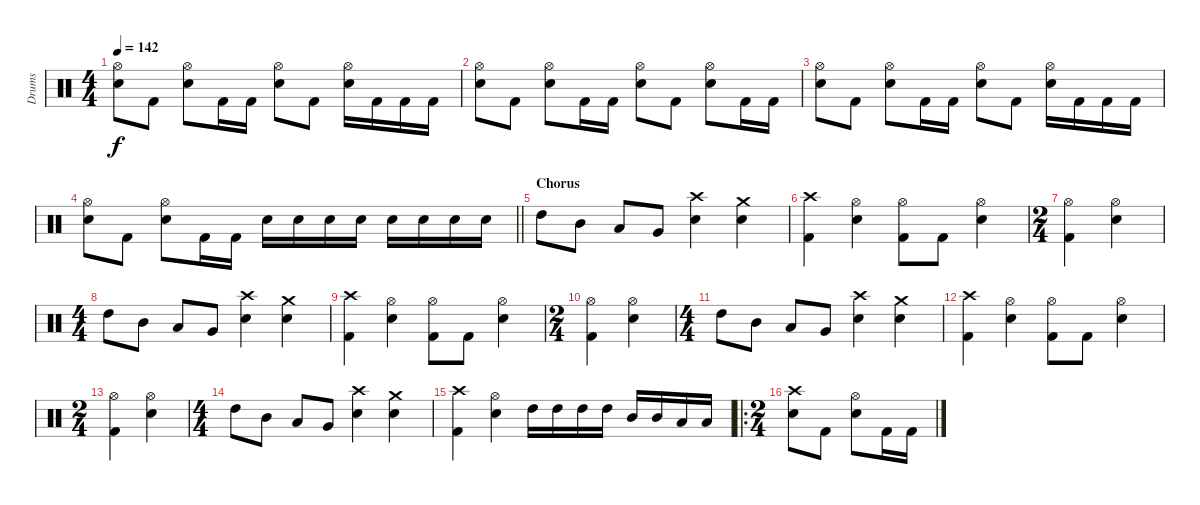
\track ("Drums" "Drums") {instrument percussion}
\staff {score}
\articulation defaults
\ts (4 4)
\tempo 142
\clef neutral
\ks c
("Snare (hit) 2" "Hi-Hat (open)").8{dy f} "Kick (hit) 2".8 ("Snare (hit) 2" "Hi-Hat (open)").8 "Kick (hit) 2".16 "Kick (hit) 2".16 ("Snare (hit) 2" "Hi-Hat (open)").8 "Kick (hit) 2".8 ("Snare (hit) 2" "Hi-Hat (open)").16 "Kick (hit) 2".16 "Kick (hit) 2".16 "Kick (hit) 2".16 |
("Snare (hit) 2" "Hi-Hat (open)").8 "Kick (hit) 2".8 ("Snare (hit) 2" "Hi-Hat (open)").8 "Kick (hit) 2".16 "Kick (hit) 2".16 ("Snare (hit) 2" "Hi-Hat (open)").8 "Kick (hit) 2".8 ("Snare (hit) 2" "Hi-Hat (open)").8 "Kick (hit) 2".16 "Kick (hit) 2".16 |
("Snare (hit) 2" "Hi-Hat (open)").8 "Kick (hit) 2".8 ("Snare (hit) 2" "Hi-Hat (open)").8 "Kick (hit) 2".16 "Kick (hit) 2".16 ("Snare (hit) 2" "Hi-Hat (open)").8 "Kick (hit) 2".8 ("Snare (hit) 2" "Hi-Hat (open)").16 "Kick (hit) 2".16 "Kick (hit) 2".16 "Kick (hit) 2".16 |
\barLineRight lightlight
("Snare (hit) 2" "Hi-Hat (open)").8 "Kick (hit) 2".8 ("Snare (hit) 2" "Hi-Hat (open)").8 "Kick (hit) 2".16 "Kick (hit) 2".16 "Snare (hit) 2".16 "Snare (hit) 2".16 "Snare (hit) 2".16 "Snare (hit) 2".16 "Snare (hit) 2".16 "Snare (hit) 2".16 "Snare (hit) 2".16 "Snare (hit) 2".16 |
\section ("" "Chorus")
"High Tom (hit)".8 "Mid Tom (hit)".8 "Low Tom (hit)".8 "Very Low Tom (hit)".8 ("Snare (hit) 2" "Crash high (hit)").4 ("Snare (hit) 2" "Crash medium (hit)").4 |
("Kick (hit) 2" "Crash high (hit)").4 ("Snare (hit) 2" "Hi-Hat (open)").4 ("Kick (hit) 2" "Hi-Hat (open)").8 "Kick (hit) 2".8 ("Snare (hit) 2" "Hi-Hat (open)").4 |
\ts (2 4)
("Kick (hit) 2" "Hi-Hat (open)").4 ("Snare (hit) 2" "Hi-Hat (open)").4 |
\ts (4 4)
"High Tom (hit)".8 "Mid Tom (hit)".8 "Low Tom (hit)".8 "Very Low Tom (hit)".8 ("Snare (hit) 2" "Crash high (hit)").4 ("Snare (hit) 2" "Crash medium (hit)").4 |
("Kick (hit) 2" "Crash high (hit)").4 ("Snare (hit) 2" "Hi-Hat (open)").4 ("Kick (hit) 2" "Hi-Hat (open)").8 "Kick (hit) 2".8 ("Snare (hit) 2" "Hi-Hat (open)").4 |
\ts (2 4)
("Kick (hit) 2" "Hi-Hat (open)").4 ("Snare (hit) 2" "Hi-Hat (open)").4 |
\ts (4 4)
"High Tom (hit)".8 "Mid Tom (hit)".8 "Low Tom (hit)".8 "Very Low Tom (hit)".8 ("Snare (hit) 2" "Crash high (hit)").4 ("Snare (hit) 2" "Crash medium (hit)").4 |
("Kick (hit) 2" "Crash high (hit)").4 ("Snare (hit) 2" "Hi-Hat (open)").4 ("Kick (hit) 2" "Hi-Hat (open)").8 "Kick (hit) 2".8 ("Snare (hit) 2" "Hi-Hat (open)").4 |
\ts (2 4)
("Kick (hit) 2" "Hi-Hat (open)").4 ("Snare (hit) 2" "Hi-Hat (open)").4 |
\ts (4 4)
"High Tom (hit)".8 "Mid Tom (hit)".8 "Low Tom (hit)".8 "Very Low Tom (hit)".8 ("Snare (hit) 2" "Crash high (hit)").4 ("Snare (hit) 2" "Crash medium (hit)").4 |
("Kick (hit) 2" "Crash high (hit)").4 ("Snare (hit) 2" "Hi-Hat (open)").4 "High Tom (hit)".16 "High Tom (hit)".16 "High Tom (hit)".16 "High Tom (hit)".16 "Mid Tom (hit)".16 "Mid Tom (hit)".16 "Low Tom (hit)".16 "Low Tom (hit)".16 |
\ro
\ts (2 4)
("Snare (hit) 2" "Crash high (hit)").8 "Kick (hit) 2".8 ("Snare (hit) 2" "Hi-Hat (open)").8 "Kick (hit) 2".16 "Kick (hit) 2".16
